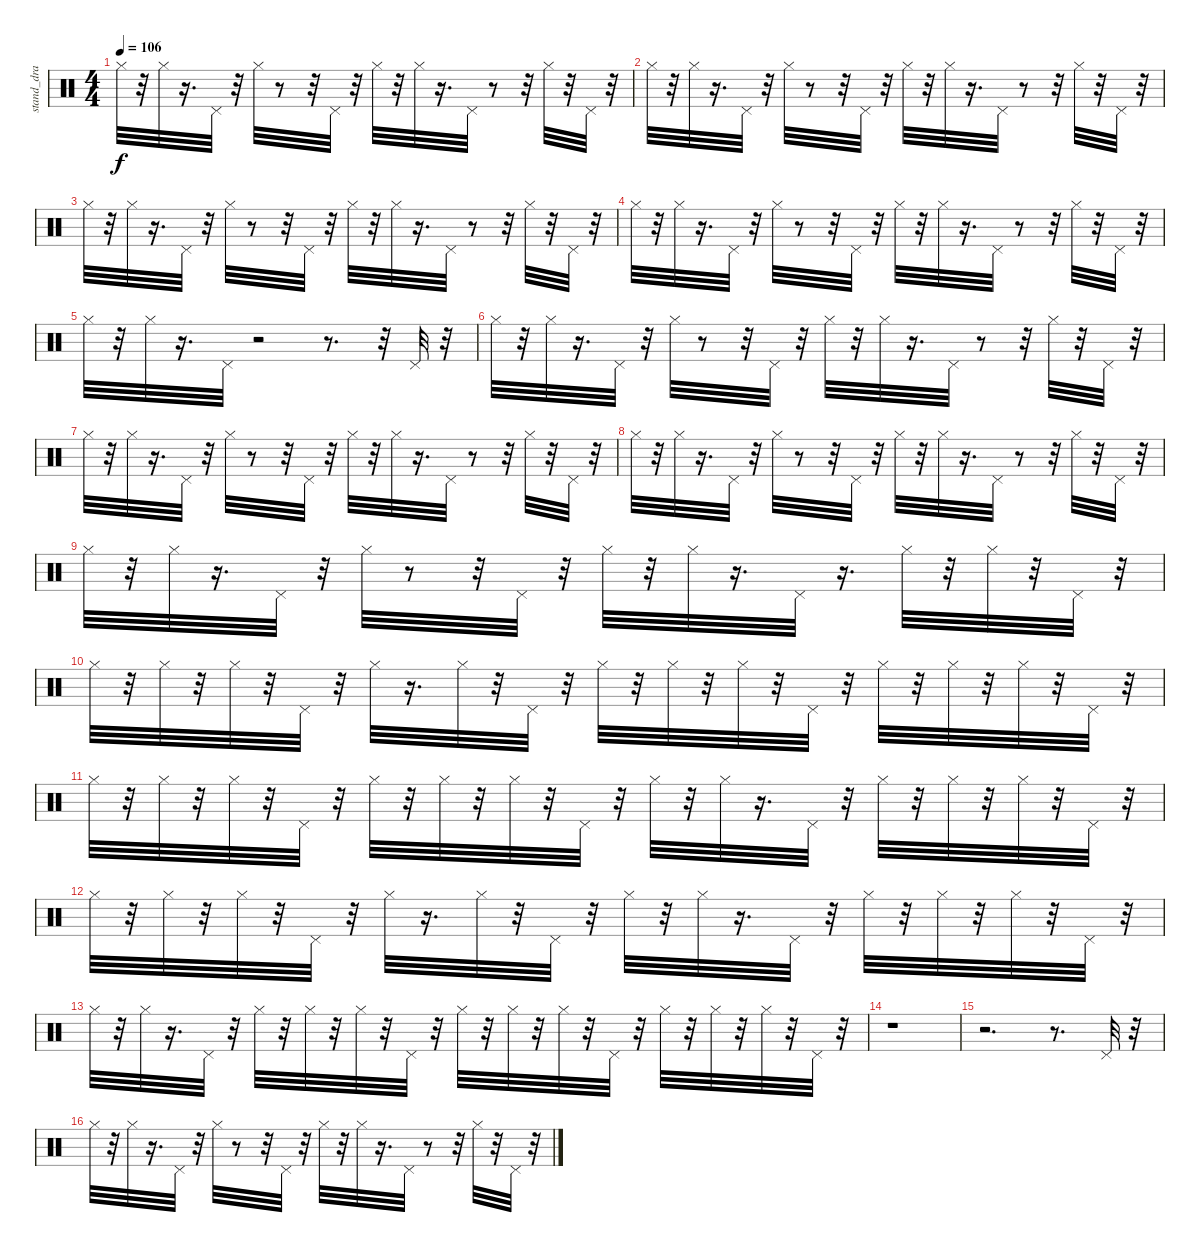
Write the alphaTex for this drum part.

\track ("stand_dra" "stand_dra") {instrument percussion}
\staff {score}
\articulation defaults
\ts (4 4)
\tempo 106
\clef neutral
\ks c "Hi-Hat (closed)".32{dy f}
r.32 "Hi-Hat (closed)".32 r.16{d} "Pedal Hi-Hat (hit)".32 r.32 "Hi-Hat (closed)".32 r.8 r.32 "Pedal Hi-Hat (hit)".32 r.32 "Hi-Hat (closed)".32 r.32 "Hi-Hat (closed)".32 r.16{d} "Pedal Hi-Hat (hit)".32 r.8 r.32 "Hi-Hat (closed)".32 r.32 "Pedal Hi-Hat (hit)".32 r.32 |
"Hi-Hat (closed)".32 r.32 "Hi-Hat (closed)".32 r.16{d} "Pedal Hi-Hat (hit)".32 r.32 "Hi-Hat (closed)".32 r.8 r.32 "Pedal Hi-Hat (hit)".32 r.32 "Hi-Hat (closed)".32 r.32 "Hi-Hat (closed)".32 r.16{d} "Pedal Hi-Hat (hit)".32 r.8 r.32 "Hi-Hat (closed)".32 r.32 "Pedal Hi-Hat (hit)".32 r.32 |
"Hi-Hat (closed)".32 r.32 "Hi-Hat (closed)".32 r.16{d} "Pedal Hi-Hat (hit)".32 r.32 "Hi-Hat (closed)".32 r.8 r.32 "Pedal Hi-Hat (hit)".32 r.32 "Hi-Hat (closed)".32 r.32 "Hi-Hat (closed)".32 r.16{d} "Pedal Hi-Hat (hit)".32 r.8 r.32 "Hi-Hat (closed)".32 r.32 "Pedal Hi-Hat (hit)".32 r.32 |
"Hi-Hat (closed)".32 r.32 "Hi-Hat (closed)".32 r.16{d} "Pedal Hi-Hat (hit)".32 r.32 "Hi-Hat (closed)".32 r.8 r.32 "Pedal Hi-Hat (hit)".32 r.32 "Hi-Hat (closed)".32 r.32 "Hi-Hat (closed)".32 r.16{d} "Pedal Hi-Hat (hit)".32 r.8 r.32 "Hi-Hat (closed)".32 r.32 "Pedal Hi-Hat (hit)".32 r.32 |
"Hi-Hat (closed)".32 r.32 "Hi-Hat (closed)".32 r.16{d} "Pedal Hi-Hat (hit)".32 r.2 r.8{d} r.32 "Pedal Hi-Hat (hit)".32 r.32 |
"Hi-Hat (closed)".32 r.32 "Hi-Hat (closed)".32 r.16{d} "Pedal Hi-Hat (hit)".32 r.32 "Hi-Hat (closed)".32 r.8 r.32 "Pedal Hi-Hat (hit)".32 r.32 "Hi-Hat (closed)".32 r.32 "Hi-Hat (closed)".32 r.16{d} "Pedal Hi-Hat (hit)".32 r.8 r.32 "Hi-Hat (closed)".32 r.32 "Pedal Hi-Hat (hit)".32 r.32 |
"Hi-Hat (closed)".32 r.32 "Hi-Hat (closed)".32 r.16{d} "Pedal Hi-Hat (hit)".32 r.32 "Hi-Hat (closed)".32 r.8 r.32 "Pedal Hi-Hat (hit)".32 r.32 "Hi-Hat (closed)".32 r.32 "Hi-Hat (closed)".32 r.16{d} "Pedal Hi-Hat (hit)".32 r.8 r.32 "Hi-Hat (closed)".32 r.32 "Pedal Hi-Hat (hit)".32 r.32 |
"Hi-Hat (closed)".32 r.32 "Hi-Hat (closed)".32 r.16{d} "Pedal Hi-Hat (hit)".32 r.32 "Hi-Hat (closed)".32 r.8 r.32 "Pedal Hi-Hat (hit)".32 r.32 "Hi-Hat (closed)".32 r.32 "Hi-Hat (closed)".32 r.16{d} "Pedal Hi-Hat (hit)".32 r.8 r.32 "Hi-Hat (closed)".32 r.32 "Pedal Hi-Hat (hit)".32 r.32 |
"Hi-Hat (closed)".32 r.32 "Hi-Hat (closed)".32 r.16{d} "Pedal Hi-Hat (hit)".32 r.32 "Hi-Hat (closed)".32 r.8 r.32 "Pedal Hi-Hat (hit)".32 r.32 "Hi-Hat (closed)".32 r.32 "Hi-Hat (closed)".32 r.16{d} "Pedal Hi-Hat (hit)".32 r.16{d} "Hi-Hat (closed)".32 r.32 "Hi-Hat (closed)".32 r.32 "Pedal Hi-Hat (hit)".32 r.32 |
"Hi-Hat (closed)".32 r.32 "Hi-Hat (closed)".32 r.32 "Hi-Hat (closed)".32 r.32 "Pedal Hi-Hat (hit)".32 r.32 "Hi-Hat (closed)".32 r.16{d} "Hi-Hat (closed)".32 r.32 "Pedal Hi-Hat (hit)".32 r.32 "Hi-Hat (closed)".32 r.32 "Hi-Hat (closed)".32 r.32 "Hi-Hat (closed)".32 r.32 "Pedal Hi-Hat (hit)".32 r.32 "Hi-Hat (closed)".32 r.32 "Hi-Hat (closed)".32 r.32 "Hi-Hat (closed)".32 r.32 "Pedal Hi-Hat (hit)".32 r.32 |
"Hi-Hat (closed)".32 r.32 "Hi-Hat (closed)".32 r.32 "Hi-Hat (closed)".32 r.32 "Pedal Hi-Hat (hit)".32 r.32 "Hi-Hat (closed)".32 r.32 "Hi-Hat (closed)".32 r.32 "Hi-Hat (closed)".32 r.32 "Pedal Hi-Hat (hit)".32 r.32 "Hi-Hat (closed)".32 r.32 "Hi-Hat (closed)".32 r.16{d} "Pedal Hi-Hat (hit)".32 r.32 "Hi-Hat (closed)".32 r.32 "Hi-Hat (closed)".32 r.32 "Hi-Hat (closed)".32 r.32 "Pedal Hi-Hat (hit)".32 r.32 |
"Hi-Hat (closed)".32 r.32 "Hi-Hat (closed)".32 r.32 "Hi-Hat (closed)".32 r.32 "Pedal Hi-Hat (hit)".32 r.32 "Hi-Hat (closed)".32 r.16{d} "Hi-Hat (closed)".32 r.32 "Pedal Hi-Hat (hit)".32 r.32 "Hi-Hat (closed)".32 r.32 "Hi-Hat (closed)".32 r.16{d} "Pedal Hi-Hat (hit)".32 r.32 "Hi-Hat (closed)".32 r.32 "Hi-Hat (closed)".32 r.32 "Hi-Hat (closed)".32 r.32 "Pedal Hi-Hat (hit)".32 r.32 |
"Hi-Hat (closed)".32 r.32 "Hi-Hat (closed)".32 r.16{d} "Pedal Hi-Hat (hit)".32 r.32 "Hi-Hat (closed)".32 r.32 "Hi-Hat (closed)".32 r.32 "Hi-Hat (closed)".32 r.32 "Pedal Hi-Hat (hit)".32 r.32 "Hi-Hat (closed)".32 r.32 "Hi-Hat (closed)".32 r.32 "Hi-Hat (closed)".32 r.32 "Pedal Hi-Hat (hit)".32 r.32 "Hi-Hat (closed)".32 r.32 "Hi-Hat (closed)".32 r.32 "Hi-Hat (closed)".32 r.32 "Pedal Hi-Hat (hit)".32 r.32 |
r.1 |
r.2{d} r.8{d} "Pedal Hi-Hat (hit)".32 r.32 |
"Hi-Hat (closed)".32 r.32 "Hi-Hat (closed)".32 r.16{d} "Pedal Hi-Hat (hit)".32 r.32 "Hi-Hat (closed)".32 r.8 r.32 "Pedal Hi-Hat (hit)".32 r.32 "Hi-Hat (closed)".32 r.32 "Hi-Hat (closed)".32 r.16{d} "Pedal Hi-Hat (hit)".32 r.8 r.32 "Hi-Hat (closed)".32 r.32 "Pedal Hi-Hat (hit)".32 r.32
